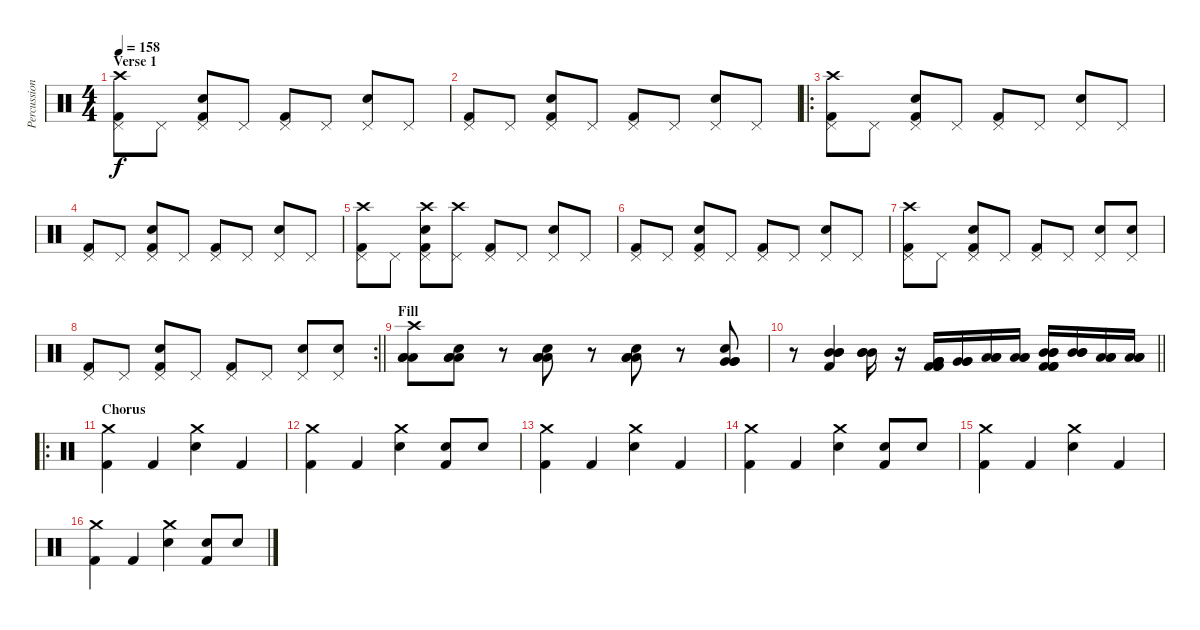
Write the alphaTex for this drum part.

\track ("Percussion" "Percussion") {instrument percussion}
\staff {score}
\articulation defaults
\ts (4 4)
\section ("" "Verse 1")
\tempo 158
\clef neutral
\ks c
("Crash high (hit)" "Pedal Hi-Hat (hit)" "Kick (hit) 2").8{dy f} "Pedal Hi-Hat (hit)".8 ("Pedal Hi-Hat (hit)" "Electric Snare (hit)" "Kick (hit) 2").8 "Pedal Hi-Hat (hit)".8 ("Pedal Hi-Hat (hit)" "Kick (hit) 2").8 "Pedal Hi-Hat (hit)".8 ("Pedal Hi-Hat (hit)" "Electric Snare (hit)").8 "Pedal Hi-Hat (hit)".8 |
("Pedal Hi-Hat (hit)" "Kick (hit) 2").8 "Pedal Hi-Hat (hit)".8 ("Pedal Hi-Hat (hit)" "Electric Snare (hit)" "Kick (hit) 2").8 "Pedal Hi-Hat (hit)".8 ("Pedal Hi-Hat (hit)" "Kick (hit) 2").8 "Pedal Hi-Hat (hit)".8 ("Pedal Hi-Hat (hit)" "Electric Snare (hit)").8 "Pedal Hi-Hat (hit)".8 |
\ro
("Crash high (hit)" "Pedal Hi-Hat (hit)" "Kick (hit) 2").8 "Pedal Hi-Hat (hit)".8 ("Pedal Hi-Hat (hit)" "Electric Snare (hit)" "Kick (hit) 2").8 "Pedal Hi-Hat (hit)".8 ("Pedal Hi-Hat (hit)" "Kick (hit) 2").8 "Pedal Hi-Hat (hit)".8 ("Pedal Hi-Hat (hit)" "Electric Snare (hit)").8 "Pedal Hi-Hat (hit)".8 |
("Pedal Hi-Hat (hit)" "Kick (hit) 2").8 "Pedal Hi-Hat (hit)".8 ("Pedal Hi-Hat (hit)" "Electric Snare (hit)" "Kick (hit) 2").8 "Pedal Hi-Hat (hit)".8 ("Pedal Hi-Hat (hit)" "Kick (hit) 2").8 "Pedal Hi-Hat (hit)".8 ("Pedal Hi-Hat (hit)" "Electric Snare (hit)").8 "Pedal Hi-Hat (hit)".8 |
("Crash high (hit)" "Pedal Hi-Hat (hit)" "Kick (hit) 2").8 "Pedal Hi-Hat (hit)".8 ("Crash high (hit)" "Pedal Hi-Hat (hit)" "Electric Snare (hit)" "Kick (hit) 2").8 ("Crash high (hit)" "Pedal Hi-Hat (hit)").8 ("Pedal Hi-Hat (hit)" "Kick (hit) 2").8 "Pedal Hi-Hat (hit)".8 ("Pedal Hi-Hat (hit)" "Electric Snare (hit)").8 "Pedal Hi-Hat (hit)".8 |
("Pedal Hi-Hat (hit)" "Kick (hit) 2").8 "Pedal Hi-Hat (hit)".8 ("Pedal Hi-Hat (hit)" "Electric Snare (hit)" "Kick (hit) 2").8 "Pedal Hi-Hat (hit)".8 ("Pedal Hi-Hat (hit)" "Kick (hit) 2").8 "Pedal Hi-Hat (hit)".8 ("Pedal Hi-Hat (hit)" "Electric Snare (hit)").8 "Pedal Hi-Hat (hit)".8 |
("Crash high (hit)" "Pedal Hi-Hat (hit)" "Kick (hit) 2").8 "Pedal Hi-Hat (hit)".8 ("Pedal Hi-Hat (hit)" "Electric Snare (hit)" "Kick (hit) 2").8 "Pedal Hi-Hat (hit)".8 ("Pedal Hi-Hat (hit)" "Kick (hit) 2").8 "Pedal Hi-Hat (hit)".8 ("Pedal Hi-Hat (hit)" "Electric Snare (hit)").8 ("Pedal Hi-Hat (hit)" "Electric Snare (hit)").8 |
\rc 2
\barLineRight lightlight
("Pedal Hi-Hat (hit)" "Kick (hit) 2").8 "Pedal Hi-Hat (hit)".8 ("Pedal Hi-Hat (hit)" "Electric Snare (hit)" "Kick (hit) 2").8 "Pedal Hi-Hat (hit)".8 ("Pedal Hi-Hat (hit)" "Kick (hit) 2").8 "Pedal Hi-Hat (hit)".8 ("Pedal Hi-Hat (hit)" "Electric Snare (hit)").8 ("Pedal Hi-Hat (hit)" "Electric Snare (hit)").8 |
\section ("" "Fill")
("Low Floor Tom (hit)" "Low Floor Tom (hit)" "Low Floor Tom (hit)" "Crash high (hit)").8 ("Low Floor Tom (hit)" "Low Floor Tom (hit)" "Low Floor Tom (hit)" "Electric Snare (hit)").8 r.8 ("Low Floor Tom (hit)" "Low Floor Tom (hit)" "Low Floor Tom (hit)" "Electric Snare (hit)").8 r.8 ("Low Floor Tom (hit)" "Low Floor Tom (hit)" "Low Floor Tom (hit)" "Electric Snare (hit)").8 r.8 ("Very Low Tom (hit)" "Very Low Tom (hit)" "Very Low Tom (hit)" "Electric Snare (hit)").8 |
\barLineRight lightlight
r.8 ("Mid Tom (hit)" "Mid Tom (hit)" "Mid Tom (hit)" "Kick (hit) 2").4 ("Mid Tom (hit)" "Mid Tom (hit)" "Mid Tom (hit)").16 r.16 ("Very Low Tom (hit)" "Very Low Tom (hit)" "Very Low Tom (hit)" "Kick (hit) 2" "Kick (hit) 2" "Kick (hit) 2").16 ("Very Low Tom (hit)" "Very Low Tom (hit)" "Very Low Tom (hit)").16 ("Low Tom (hit)" "Low Tom (hit)" "Low Tom (hit)").16 ("Low Tom (hit)" "Low Tom (hit)" "Low Tom (hit)").16 ("Mid Tom (hit)" "Mid Tom (hit)" "Mid Tom (hit)" "Kick (hit) 2" "Kick (hit) 2" "Kick (hit) 2").16 ("Mid Tom (hit)" "Mid Tom (hit)" "Mid Tom (hit)").16 ("Low Floor Tom (hit)" "Low Floor Tom (hit)" "Low Floor Tom (hit)").16 ("Low Floor Tom (hit)" "Low Floor Tom (hit)" "Low Floor Tom (hit)").16 |
\ro
\section ("" "Chorus")
("Crash medium (hit)" "Kick (hit) 2").4 "Kick (hit) 2".4 ("Crash medium (hit)" "Electric Snare (hit)").4 "Kick (hit) 2".4 |
("Crash medium (hit)" "Kick (hit) 2").4 "Kick (hit) 2".4 ("Crash medium (hit)" "Electric Snare (hit)").4 ("Electric Snare (hit)" "Kick (hit) 2").8 "Electric Snare (hit)".8 |
("Crash medium (hit)" "Kick (hit) 2").4 "Kick (hit) 2".4 ("Crash medium (hit)" "Electric Snare (hit)").4 "Kick (hit) 2".4 |
("Crash medium (hit)" "Kick (hit) 2").4 "Kick (hit) 2".4 ("Crash medium (hit)" "Electric Snare (hit)").4 ("Electric Snare (hit)" "Kick (hit) 2").8 "Electric Snare (hit)".8 |
("Crash medium (hit)" "Kick (hit) 2").4 "Kick (hit) 2".4 ("Crash medium (hit)" "Electric Snare (hit)").4 "Kick (hit) 2".4 |
("Crash medium (hit)" "Kick (hit) 2").4 "Kick (hit) 2".4 ("Crash medium (hit)" "Electric Snare (hit)").4 ("Electric Snare (hit)" "Kick (hit) 2").8 "Electric Snare (hit)".8
